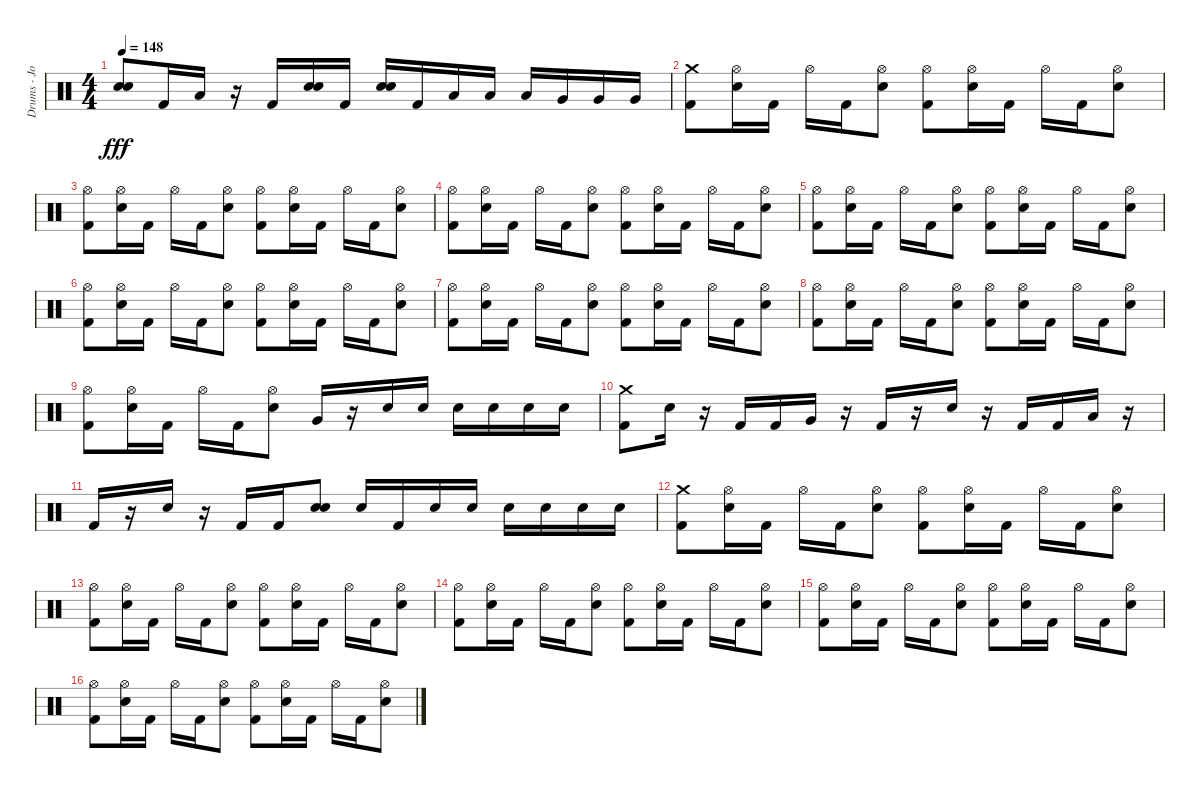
\track ("Drums - Jordan" "Drums - Jo") {instrument percussion}
\staff {score}
\articulation defaults
\ts (4 4)
\tempo 148
\clef neutral
\ks c
("Electric Snare (hit)" "Electric Snare (hit)").8{dy fff} "Kick (hit) 2".16 "Low Tom (hit)".16 r.16 "Kick (hit) 2".16 ("Electric Snare (hit)" "Electric Snare (hit)").16 "Kick (hit) 2".16 ("Electric Snare (hit)" "Electric Snare (hit)").16 "Kick (hit) 2".16 "Low Tom (hit)".16 "Low Tom (hit)".16 "Low Tom (hit)".16 "Very Low Tom (hit)".16 "Very Low Tom (hit)".16 "Very Low Tom (hit)".16 |
("Kick (hit) 2" "Crash medium (hit)").8 ("Hi-Hat (open)" "Electric Snare (hit)").16 "Kick (hit) 2".16 "Hi-Hat (open)".16 "Kick (hit) 2".16 ("Hi-Hat (open)" "Electric Snare (hit)").8 ("Hi-Hat (open)" "Kick (hit) 2").8 ("Hi-Hat (open)" "Electric Snare (hit)").16 "Kick (hit) 2".16 "Hi-Hat (open)".16 "Kick (hit) 2".16 ("Hi-Hat (open)" "Electric Snare (hit)").8 |
("Hi-Hat (open)" "Kick (hit) 2").8 ("Hi-Hat (open)" "Electric Snare (hit)").16 "Kick (hit) 2".16 "Hi-Hat (open)".16 "Kick (hit) 2".16 ("Hi-Hat (open)" "Electric Snare (hit)").8 ("Hi-Hat (open)" "Kick (hit) 2").8 ("Hi-Hat (open)" "Electric Snare (hit)").16 "Kick (hit) 2".16 "Hi-Hat (open)".16 "Kick (hit) 2".16 ("Hi-Hat (open)" "Electric Snare (hit)").8 |
("Hi-Hat (open)" "Kick (hit) 2").8 ("Hi-Hat (open)" "Electric Snare (hit)").16 "Kick (hit) 2".16 "Hi-Hat (open)".16 "Kick (hit) 2".16 ("Hi-Hat (open)" "Electric Snare (hit)").8 ("Hi-Hat (open)" "Kick (hit) 2").8 ("Hi-Hat (open)" "Electric Snare (hit)").16 "Kick (hit) 2".16 "Hi-Hat (open)".16 "Kick (hit) 2".16 ("Hi-Hat (open)" "Electric Snare (hit)").8 |
("Hi-Hat (open)" "Kick (hit) 2").8 ("Hi-Hat (open)" "Electric Snare (hit)").16 "Kick (hit) 2".16 "Hi-Hat (open)".16 "Kick (hit) 2".16 ("Hi-Hat (open)" "Electric Snare (hit)").8 ("Hi-Hat (open)" "Kick (hit) 2").8 ("Hi-Hat (open)" "Electric Snare (hit)").16 "Kick (hit) 2".16 "Hi-Hat (open)".16 "Kick (hit) 2".16 ("Hi-Hat (open)" "Electric Snare (hit)").8 |
("Hi-Hat (open)" "Kick (hit) 2").8 ("Hi-Hat (open)" "Electric Snare (hit)").16 "Kick (hit) 2".16 "Hi-Hat (open)".16 "Kick (hit) 2".16 ("Hi-Hat (open)" "Electric Snare (hit)").8 ("Hi-Hat (open)" "Kick (hit) 2").8 ("Hi-Hat (open)" "Electric Snare (hit)").16 "Kick (hit) 2".16 "Hi-Hat (open)".16 "Kick (hit) 2".16 ("Hi-Hat (open)" "Electric Snare (hit)").8 |
("Hi-Hat (open)" "Kick (hit) 2").8 ("Hi-Hat (open)" "Electric Snare (hit)").16 "Kick (hit) 2".16 "Hi-Hat (open)".16 "Kick (hit) 2".16 ("Hi-Hat (open)" "Electric Snare (hit)").8 ("Hi-Hat (open)" "Kick (hit) 2").8 ("Hi-Hat (open)" "Electric Snare (hit)").16 "Kick (hit) 2".16 "Hi-Hat (open)".16 "Kick (hit) 2".16 ("Hi-Hat (open)" "Electric Snare (hit)").8 |
("Hi-Hat (open)" "Kick (hit) 2").8 ("Hi-Hat (open)" "Electric Snare (hit)").16 "Kick (hit) 2".16 "Hi-Hat (open)".16 "Kick (hit) 2".16 ("Hi-Hat (open)" "Electric Snare (hit)").8 ("Hi-Hat (open)" "Kick (hit) 2").8 ("Hi-Hat (open)" "Electric Snare (hit)").16 "Kick (hit) 2".16 "Hi-Hat (open)".16 "Kick (hit) 2".16 ("Hi-Hat (open)" "Electric Snare (hit)").8 |
("Hi-Hat (open)" "Kick (hit) 2").8 ("Hi-Hat (open)" "Electric Snare (hit)").16 "Kick (hit) 2".16 "Hi-Hat (open)".16 "Kick (hit) 2".16 ("Hi-Hat (open)" "Electric Snare (hit)").8 "Very Low Tom (hit)".16 r.16 "Electric Snare (hit)".16 "Electric Snare (hit)".16 "Electric Snare (hit)".16 "Electric Snare (hit)".16 "Electric Snare (hit)".16 "Electric Snare (hit)".16 |
("Kick (hit) 2" "Crash medium (hit)").8 "Electric Snare (hit)".16 r.16 "Kick (hit) 2".16 "Kick (hit) 2".16 "Very Low Tom (hit)".16 r.16 "Kick (hit) 2".16 r.16 "Electric Snare (hit)".16 r.16 "Kick (hit) 2".16 "Kick (hit) 2".16 "Low Tom (hit)".16 r.16 |
"Kick (hit) 2".16 r.16 "Electric Snare (hit)".16 r.16 "Kick (hit) 2".16 "Kick (hit) 2".16 ("Electric Snare (hit)" "Electric Snare (hit)").8 "Electric Snare (hit)".16 "Kick (hit) 2".16 "Electric Snare (hit)".16 "Electric Snare (hit)".16 "Electric Snare (hit)".16 "Electric Snare (hit)".16 "Electric Snare (hit)".16 "Electric Snare (hit)".16 |
("Kick (hit) 2" "Crash medium (hit)").8 ("Hi-Hat (open)" "Electric Snare (hit)").16 "Kick (hit) 2".16 "Hi-Hat (open)".16 "Kick (hit) 2".16 ("Hi-Hat (open)" "Electric Snare (hit)").8 ("Hi-Hat (open)" "Kick (hit) 2").8 ("Hi-Hat (open)" "Electric Snare (hit)").16 "Kick (hit) 2".16 "Hi-Hat (open)".16 "Kick (hit) 2".16 ("Hi-Hat (open)" "Electric Snare (hit)").8 |
("Hi-Hat (open)" "Kick (hit) 2").8 ("Hi-Hat (open)" "Electric Snare (hit)").16 "Kick (hit) 2".16 "Hi-Hat (open)".16 "Kick (hit) 2".16 ("Hi-Hat (open)" "Electric Snare (hit)").8 ("Hi-Hat (open)" "Kick (hit) 2").8 ("Hi-Hat (open)" "Electric Snare (hit)").16 "Kick (hit) 2".16 "Hi-Hat (open)".16 "Kick (hit) 2".16 ("Hi-Hat (open)" "Electric Snare (hit)").8 |
("Hi-Hat (open)" "Kick (hit) 2").8 ("Hi-Hat (open)" "Electric Snare (hit)").16 "Kick (hit) 2".16 "Hi-Hat (open)".16 "Kick (hit) 2".16 ("Hi-Hat (open)" "Electric Snare (hit)").8 ("Hi-Hat (open)" "Kick (hit) 2").8 ("Hi-Hat (open)" "Electric Snare (hit)").16 "Kick (hit) 2".16 "Hi-Hat (open)".16 "Kick (hit) 2".16 ("Hi-Hat (open)" "Electric Snare (hit)").8 |
("Hi-Hat (open)" "Kick (hit) 2").8 ("Hi-Hat (open)" "Electric Snare (hit)").16 "Kick (hit) 2".16 "Hi-Hat (open)".16 "Kick (hit) 2".16 ("Hi-Hat (open)" "Electric Snare (hit)").8 ("Hi-Hat (open)" "Kick (hit) 2").8 ("Hi-Hat (open)" "Electric Snare (hit)").16 "Kick (hit) 2".16 "Hi-Hat (open)".16 "Kick (hit) 2".16 ("Hi-Hat (open)" "Electric Snare (hit)").8 |
("Hi-Hat (open)" "Kick (hit) 2").8 ("Hi-Hat (open)" "Electric Snare (hit)").16 "Kick (hit) 2".16 "Hi-Hat (open)".16 "Kick (hit) 2".16 ("Hi-Hat (open)" "Electric Snare (hit)").8 ("Hi-Hat (open)" "Kick (hit) 2").8 ("Hi-Hat (open)" "Electric Snare (hit)").16 "Kick (hit) 2".16 "Hi-Hat (open)".16 "Kick (hit) 2".16 ("Hi-Hat (open)" "Electric Snare (hit)").8
